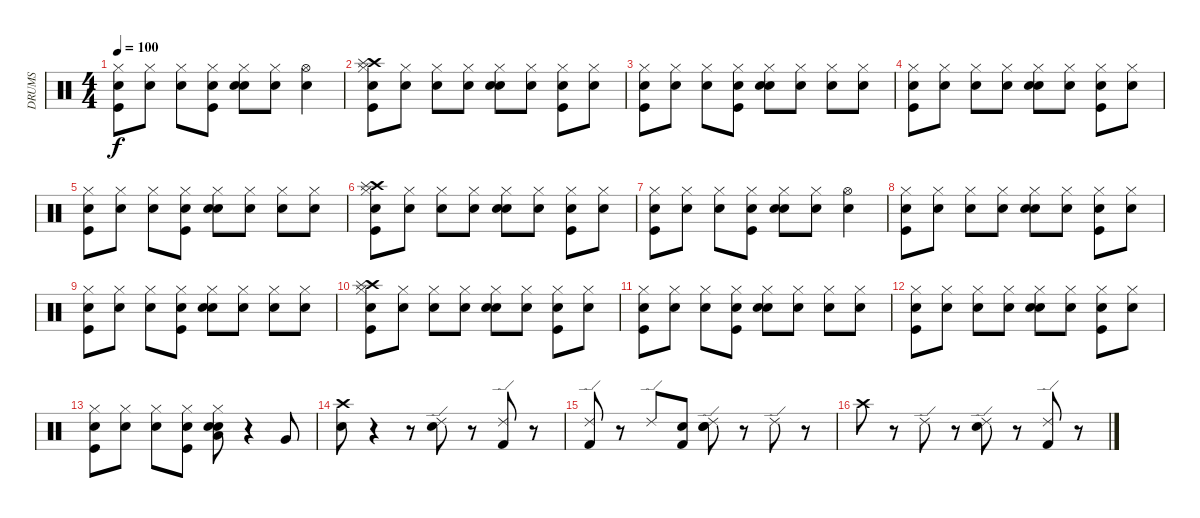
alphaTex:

\track ("DRUMS" "DRUMS") {instrument percussion}
\staff {score}
\articulation defaults
\ts (4 4)
\tempo 100
\clef neutral
\ks c
("Snare (hit)" "Kick (hit)" "Hi-Hat (closed)").8{dy f} ("Snare (hit)" "Hi-Hat (closed)").8 ("Snare (hit)" "Hi-Hat (closed)").8 ("Snare (hit)" "Kick (hit)" "Hi-Hat (closed)").8 ("Snare (hit)" "Snare (hit) 2" "Hi-Hat (closed)").8 ("Snare (hit)" "Hi-Hat (closed)").8 ("Snare (hit)" "Hi-Hat (open)").4 |
("Snare (hit)" "Kick (hit)" "Crash high (hit)" "Splash (hit)" "Hi-Hat (closed)").8 ("Snare (hit)" "Hi-Hat (closed)").8 ("Snare (hit)" "Hi-Hat (closed)").8 ("Snare (hit)" "Hi-Hat (closed)").8 ("Snare (hit)" "Snare (hit) 2" "Hi-Hat (closed)").8 ("Snare (hit)" "Hi-Hat (closed)").8 ("Snare (hit)" "Kick (hit)" "Hi-Hat (closed)").8 ("Snare (hit)" "Hi-Hat (closed)").8 |
("Snare (hit)" "Kick (hit)" "Hi-Hat (closed)").8 ("Snare (hit)" "Hi-Hat (closed)").8 ("Snare (hit)" "Hi-Hat (closed)").8 ("Snare (hit)" "Kick (hit)" "Hi-Hat (closed)").8 ("Snare (hit)" "Snare (hit) 2" "Hi-Hat (closed)").8 ("Snare (hit)" "Hi-Hat (closed)").8 ("Snare (hit)" "Hi-Hat (closed)").8 ("Snare (hit)" "Hi-Hat (closed)").8 |
("Snare (hit)" "Kick (hit)" "Hi-Hat (closed)").8 ("Snare (hit)" "Hi-Hat (closed)").8 ("Snare (hit)" "Hi-Hat (closed)").8 ("Snare (hit)" "Hi-Hat (closed)").8 ("Snare (hit)" "Snare (hit) 2" "Hi-Hat (closed)").8 ("Snare (hit)" "Hi-Hat (closed)").8 ("Snare (hit)" "Kick (hit)" "Hi-Hat (closed)").8 ("Snare (hit)" "Hi-Hat (closed)").8 |
("Snare (hit)" "Kick (hit)" "Hi-Hat (closed)").8 ("Snare (hit)" "Hi-Hat (closed)").8 ("Snare (hit)" "Hi-Hat (closed)").8 ("Snare (hit)" "Kick (hit)" "Hi-Hat (closed)").8 ("Snare (hit)" "Snare (hit) 2" "Hi-Hat (closed)").8 ("Snare (hit)" "Hi-Hat (closed)").8 ("Snare (hit)" "Hi-Hat (closed)").8 ("Snare (hit)" "Hi-Hat (closed)").8 |
("Snare (hit)" "Kick (hit)" "Crash high (hit)" "Splash (hit)" "Hi-Hat (closed)").8 ("Snare (hit)" "Hi-Hat (closed)").8 ("Snare (hit)" "Hi-Hat (closed)").8 ("Snare (hit)" "Hi-Hat (closed)").8 ("Snare (hit)" "Snare (hit) 2" "Hi-Hat (closed)").8 ("Snare (hit)" "Hi-Hat (closed)").8 ("Snare (hit)" "Kick (hit)" "Hi-Hat (closed)").8 ("Snare (hit)" "Hi-Hat (closed)").8 |
("Snare (hit)" "Kick (hit)" "Hi-Hat (closed)").8 ("Snare (hit)" "Hi-Hat (closed)").8 ("Snare (hit)" "Hi-Hat (closed)").8 ("Snare (hit)" "Kick (hit)" "Hi-Hat (closed)").8 ("Snare (hit)" "Snare (hit) 2" "Hi-Hat (closed)").8 ("Snare (hit)" "Hi-Hat (closed)").8 ("Snare (hit)" "Hi-Hat (open)").4 |
("Snare (hit)" "Kick (hit)" "Hi-Hat (closed)").8 ("Snare (hit)" "Hi-Hat (closed)").8 ("Snare (hit)" "Hi-Hat (closed)").8 ("Snare (hit)" "Hi-Hat (closed)").8 ("Snare (hit)" "Snare (hit) 2" "Hi-Hat (closed)").8 ("Snare (hit)" "Hi-Hat (closed)").8 ("Snare (hit)" "Kick (hit)" "Hi-Hat (closed)").8 ("Snare (hit)" "Hi-Hat (closed)").8 |
("Snare (hit)" "Kick (hit)" "Hi-Hat (closed)").8 ("Snare (hit)" "Hi-Hat (closed)").8 ("Snare (hit)" "Hi-Hat (closed)").8 ("Snare (hit)" "Kick (hit)" "Hi-Hat (closed)").8 ("Snare (hit)" "Snare (hit) 2" "Hi-Hat (closed)").8 ("Snare (hit)" "Hi-Hat (closed)").8 ("Snare (hit)" "Hi-Hat (closed)").8 ("Snare (hit)" "Hi-Hat (closed)").8 |
("Snare (hit)" "Kick (hit)" "Crash high (hit)" "Splash (hit)" "Hi-Hat (closed)").8 ("Snare (hit)" "Hi-Hat (closed)").8 ("Snare (hit)" "Hi-Hat (closed)").8 ("Snare (hit)" "Hi-Hat (closed)").8 ("Snare (hit)" "Snare (hit) 2" "Hi-Hat (closed)").8 ("Snare (hit)" "Hi-Hat (closed)").8 ("Snare (hit)" "Kick (hit)" "Hi-Hat (closed)").8 ("Snare (hit)" "Hi-Hat (closed)").8 |
("Snare (hit)" "Kick (hit)" "Hi-Hat (closed)").8 ("Snare (hit)" "Hi-Hat (closed)").8 ("Snare (hit)" "Hi-Hat (closed)").8 ("Snare (hit)" "Kick (hit)" "Hi-Hat (closed)").8 ("Snare (hit)" "Snare (hit) 2" "Hi-Hat (closed)").8 ("Snare (hit)" "Hi-Hat (closed)").8 ("Snare (hit)" "Hi-Hat (closed)").8 ("Snare (hit)" "Hi-Hat (closed)").8 |
("Snare (hit)" "Kick (hit)" "Hi-Hat (closed)").8 ("Snare (hit)" "Hi-Hat (closed)").8 ("Snare (hit)" "Hi-Hat (closed)").8 ("Snare (hit)" "Hi-Hat (closed)").8 ("Snare (hit)" "Snare (hit) 2" "Hi-Hat (closed)").8 ("Snare (hit)" "Hi-Hat (closed)").8 ("Snare (hit)" "Kick (hit)" "Hi-Hat (closed)").8 ("Snare (hit)" "Hi-Hat (closed)").8 |
("Snare (hit)" "Kick (hit)" "Hi-Hat (closed)").8 ("Snare (hit)" "Hi-Hat (closed)").8 ("Snare (hit)" "Hi-Hat (closed)").8 ("Snare (hit)" "Kick (hit)" "Hi-Hat (closed)").8 ("Snare (hit)" "Low Tom (hit)" "Snare (hit) 2" "Hi-Hat (closed)").8 r.4 "Very Low Tom (hit)".8 |
("Snare (hit)" "Crash high (hit)").8 r.4 r.8 ("Snare (hit) 2" "Ride (edge) 2").8 r.8 ("Kick (hit) 2" "Ride (edge) 2").8 r.8 |
("Kick (hit) 2" "Ride (edge) 2").8 r.8 "Ride (edge) 2".8 ("Snare (hit)" "Kick (hit) 2").8 ("Snare (hit)" "Snare (hit) 2" "Ride (edge) 2").8 r.8 "Ride (edge) 2".8 r.8 |
"Crash high (hit)".8 r.8 "Ride (edge) 2".8 r.8 ("Snare (hit) 2" "Ride (edge) 2").8 r.8 ("Kick (hit) 2" "Ride (edge) 2").8 r.8
